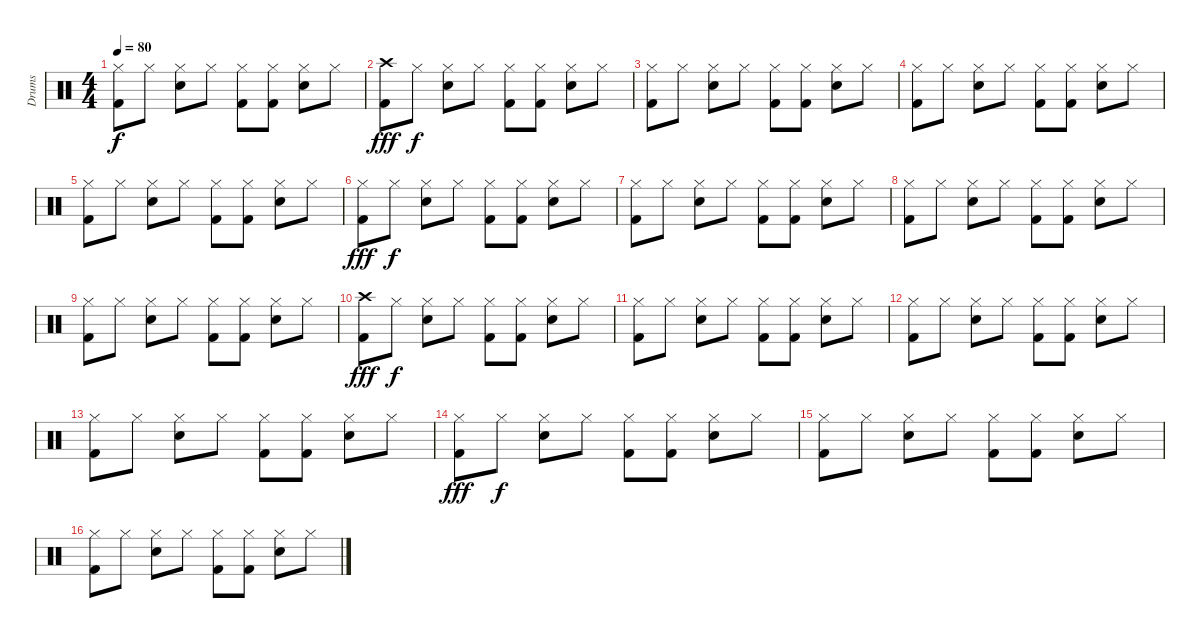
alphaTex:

\track ("Drums" "Drums") {instrument percussion}
\staff {score}
\articulation defaults
\ts (4 4)
\tempo 80
\clef neutral
\ks c
("Hi-Hat (closed)" "Kick (hit) 2").8{dy f} "Hi-Hat (closed)".8 ("Hi-Hat (closed)" "Electric Snare (hit)").8 "Hi-Hat (closed)".8 ("Hi-Hat (closed)" "Kick (hit) 2").8 ("Hi-Hat (closed)" "Kick (hit) 2").8 ("Hi-Hat (closed)" "Electric Snare (hit)").8 "Hi-Hat (closed)".8 |
("Crash high (hit)" "Kick (hit) 2").8{dy fff} "Hi-Hat (closed)".8{dy f} ("Hi-Hat (closed)" "Electric Snare (hit)").8 "Hi-Hat (closed)".8 ("Hi-Hat (closed)" "Kick (hit) 2").8 ("Hi-Hat (closed)" "Kick (hit) 2").8 ("Hi-Hat (closed)" "Electric Snare (hit)").8 "Hi-Hat (closed)".8 |
("Hi-Hat (closed)" "Kick (hit) 2").8 "Hi-Hat (closed)".8 ("Hi-Hat (closed)" "Electric Snare (hit)").8 "Hi-Hat (closed)".8 ("Hi-Hat (closed)" "Kick (hit) 2").8 ("Hi-Hat (closed)" "Kick (hit) 2").8 ("Hi-Hat (closed)" "Electric Snare (hit)").8 "Hi-Hat (closed)".8 |
("Hi-Hat (closed)" "Kick (hit) 2").8 "Hi-Hat (closed)".8 ("Hi-Hat (closed)" "Electric Snare (hit)").8 "Hi-Hat (closed)".8 ("Hi-Hat (closed)" "Kick (hit) 2").8 ("Hi-Hat (closed)" "Kick (hit) 2").8 ("Hi-Hat (closed)" "Electric Snare (hit)").8 "Hi-Hat (closed)".8 |
("Hi-Hat (closed)" "Kick (hit) 2").8 "Hi-Hat (closed)".8 ("Hi-Hat (closed)" "Electric Snare (hit)").8 "Hi-Hat (closed)".8 ("Hi-Hat (closed)" "Kick (hit) 2").8 ("Hi-Hat (closed)" "Kick (hit) 2").8 ("Hi-Hat (closed)" "Electric Snare (hit)").8 "Hi-Hat (closed)".8 |
("Hi-Hat (closed)" "Kick (hit) 2").8{dy fff} "Hi-Hat (closed)".8{dy f} ("Hi-Hat (closed)" "Electric Snare (hit)").8 "Hi-Hat (closed)".8 ("Hi-Hat (closed)" "Kick (hit) 2").8 ("Hi-Hat (closed)" "Kick (hit) 2").8 ("Hi-Hat (closed)" "Electric Snare (hit)").8 "Hi-Hat (closed)".8 |
("Hi-Hat (closed)" "Kick (hit) 2").8 "Hi-Hat (closed)".8 ("Hi-Hat (closed)" "Electric Snare (hit)").8 "Hi-Hat (closed)".8 ("Hi-Hat (closed)" "Kick (hit) 2").8 ("Hi-Hat (closed)" "Kick (hit) 2").8 ("Hi-Hat (closed)" "Electric Snare (hit)").8 "Hi-Hat (closed)".8 |
("Hi-Hat (closed)" "Kick (hit) 2").8 "Hi-Hat (closed)".8 ("Hi-Hat (closed)" "Electric Snare (hit)").8 "Hi-Hat (closed)".8 ("Hi-Hat (closed)" "Kick (hit) 2").8 ("Hi-Hat (closed)" "Kick (hit) 2").8 ("Hi-Hat (closed)" "Electric Snare (hit)").8 "Hi-Hat (closed)".8 |
("Hi-Hat (closed)" "Kick (hit) 2").8 "Hi-Hat (closed)".8 ("Hi-Hat (closed)" "Electric Snare (hit)").8 "Hi-Hat (closed)".8 ("Hi-Hat (closed)" "Kick (hit) 2").8 ("Hi-Hat (closed)" "Kick (hit) 2").8 ("Hi-Hat (closed)" "Electric Snare (hit)").8 "Hi-Hat (closed)".8 |
("Crash high (hit)" "Kick (hit) 2").8{dy fff} "Hi-Hat (closed)".8{dy f} ("Hi-Hat (closed)" "Electric Snare (hit)").8 "Hi-Hat (closed)".8 ("Hi-Hat (closed)" "Kick (hit) 2").8 ("Hi-Hat (closed)" "Kick (hit) 2").8 ("Hi-Hat (closed)" "Electric Snare (hit)").8 "Hi-Hat (closed)".8 |
("Hi-Hat (closed)" "Kick (hit) 2").8 "Hi-Hat (closed)".8 ("Hi-Hat (closed)" "Electric Snare (hit)").8 "Hi-Hat (closed)".8 ("Hi-Hat (closed)" "Kick (hit) 2").8 ("Hi-Hat (closed)" "Kick (hit) 2").8 ("Hi-Hat (closed)" "Electric Snare (hit)").8 "Hi-Hat (closed)".8 |
("Hi-Hat (closed)" "Kick (hit) 2").8 "Hi-Hat (closed)".8 ("Hi-Hat (closed)" "Electric Snare (hit)").8 "Hi-Hat (closed)".8 ("Hi-Hat (closed)" "Kick (hit) 2").8 ("Hi-Hat (closed)" "Kick (hit) 2").8 ("Hi-Hat (closed)" "Electric Snare (hit)").8 "Hi-Hat (closed)".8 |
("Hi-Hat (closed)" "Kick (hit) 2").8 "Hi-Hat (closed)".8 ("Hi-Hat (closed)" "Electric Snare (hit)").8 "Hi-Hat (closed)".8 ("Hi-Hat (closed)" "Kick (hit) 2").8 ("Hi-Hat (closed)" "Kick (hit) 2").8 ("Hi-Hat (closed)" "Electric Snare (hit)").8 "Hi-Hat (closed)".8 |
("Hi-Hat (closed)" "Kick (hit) 2").8{dy fff} "Hi-Hat (closed)".8{dy f} ("Hi-Hat (closed)" "Electric Snare (hit)").8 "Hi-Hat (closed)".8 ("Hi-Hat (closed)" "Kick (hit) 2").8 ("Hi-Hat (closed)" "Kick (hit) 2").8 ("Hi-Hat (closed)" "Electric Snare (hit)").8 "Hi-Hat (closed)".8 |
("Hi-Hat (closed)" "Kick (hit) 2").8 "Hi-Hat (closed)".8 ("Hi-Hat (closed)" "Electric Snare (hit)").8 "Hi-Hat (closed)".8 ("Hi-Hat (closed)" "Kick (hit) 2").8 ("Hi-Hat (closed)" "Kick (hit) 2").8 ("Hi-Hat (closed)" "Electric Snare (hit)").8 "Hi-Hat (closed)".8 |
("Hi-Hat (closed)" "Kick (hit) 2").8 "Hi-Hat (closed)".8 ("Hi-Hat (closed)" "Electric Snare (hit)").8 "Hi-Hat (closed)".8 ("Hi-Hat (closed)" "Kick (hit) 2").8 ("Hi-Hat (closed)" "Kick (hit) 2").8 ("Hi-Hat (closed)" "Electric Snare (hit)").8 "Hi-Hat (closed)".8
